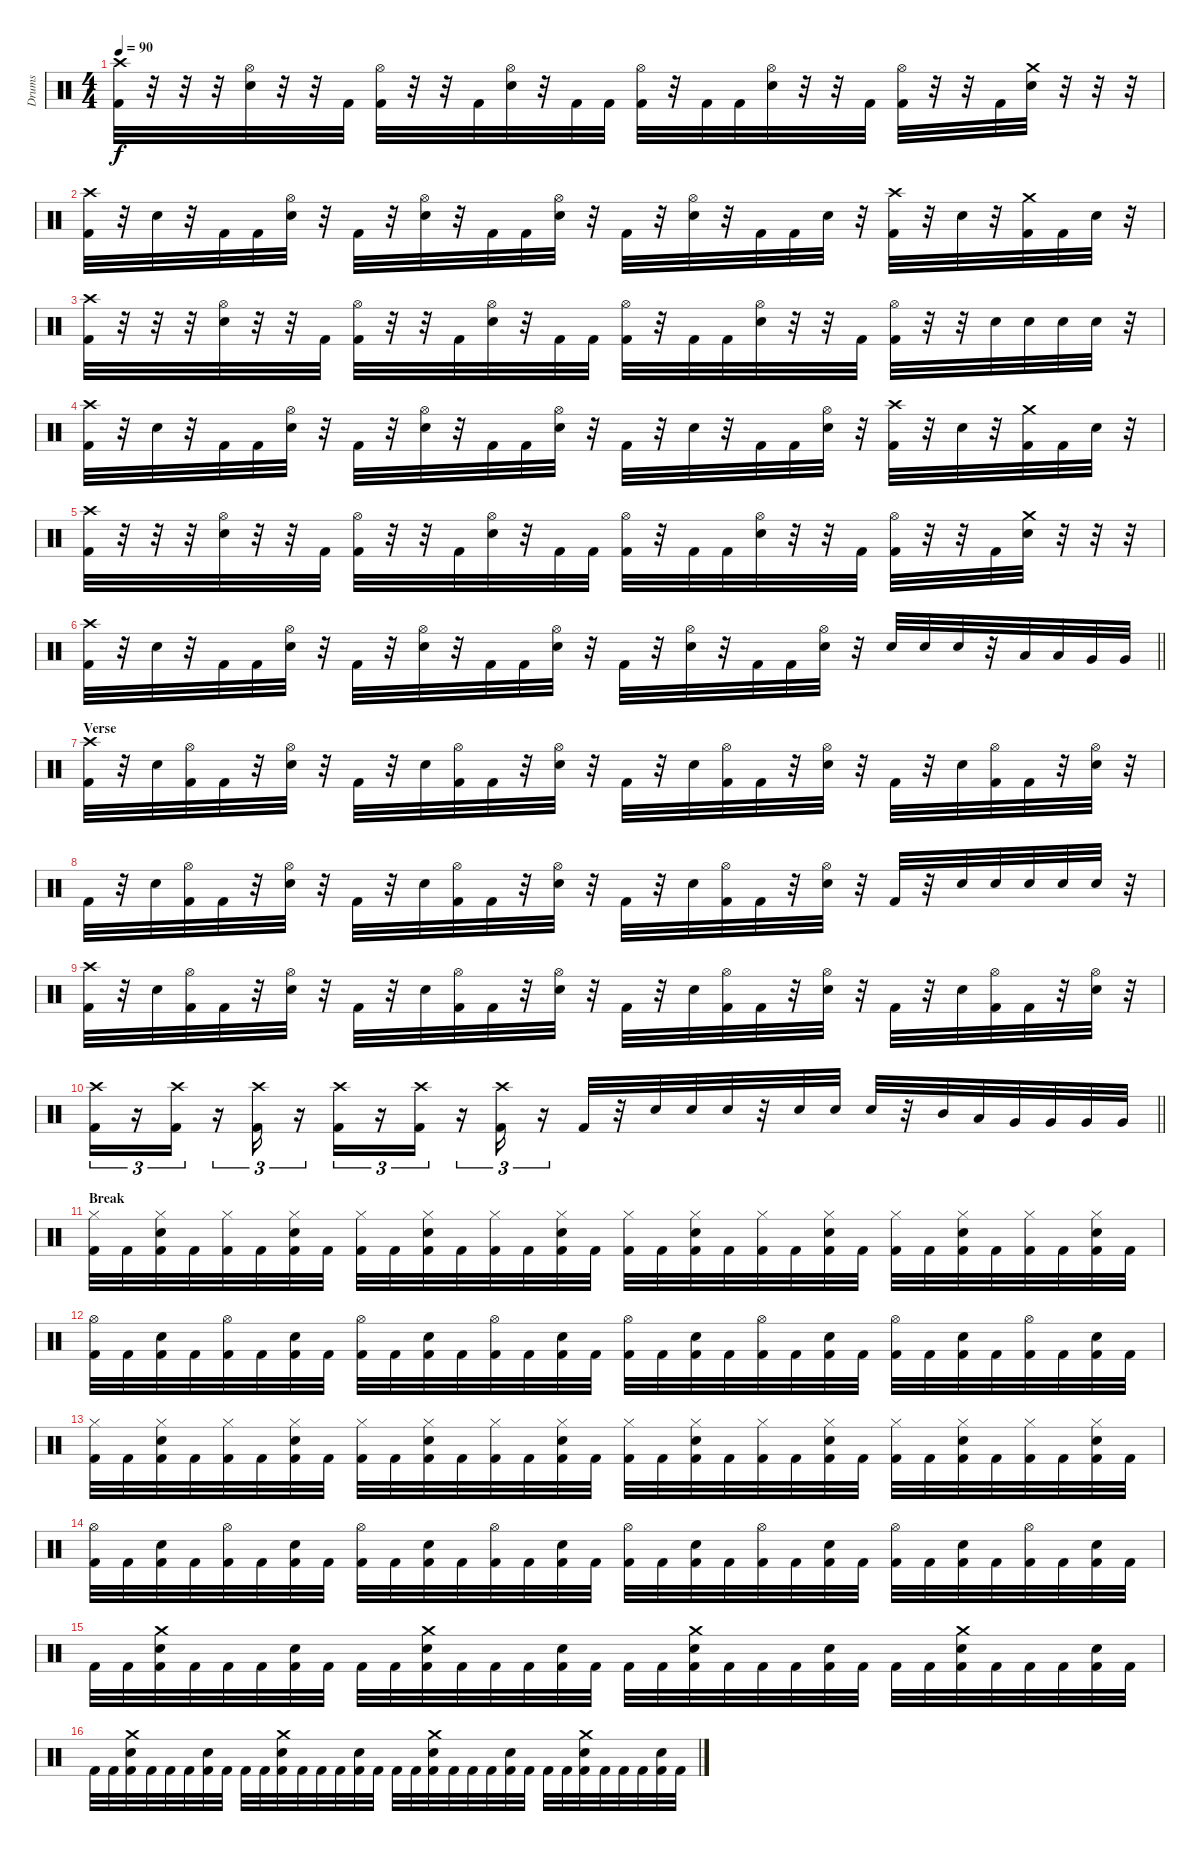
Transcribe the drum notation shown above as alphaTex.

\track ("Drums" "Drums") {instrument percussion}
\staff {score}
\articulation defaults
\ts (4 4)
\tempo 90
\clef neutral
\ks c
("Crash high (hit)" "Kick (hit) 2").32{dy f} r.32 r.32 r.32 ("Hi-Hat (open)" "Electric Snare (hit)").32 r.32 r.32 "Kick (hit) 2".32 ("Hi-Hat (open)" "Kick (hit) 2").32 r.32 r.32 "Kick (hit) 2".32 ("Hi-Hat (open)" "Electric Snare (hit)").32 r.32 "Kick (hit) 2".32 "Kick (hit) 2".32 ("Hi-Hat (open)" "Kick (hit) 2").32 r.32 "Kick (hit) 2".32 "Kick (hit) 2".32 ("Hi-Hat (open)" "Electric Snare (hit)").32 r.32 r.32 "Kick (hit) 2".32 ("Hi-Hat (open)" "Kick (hit) 2").32 r.32 r.32 "Kick (hit) 2".32 ("Crash medium (hit)" "Electric Snare (hit)").32 r.32 r.32 r.32 |
("Crash high (hit)" "Kick (hit) 2").32 r.32 "Electric Snare (hit)".32 r.32 "Kick (hit) 2".32 "Kick (hit) 2".32 ("Hi-Hat (open)" "Electric Snare (hit)").32 r.32 "Kick (hit) 2".32 r.32 ("Hi-Hat (open)" "Electric Snare (hit)").32 r.32 "Kick (hit) 2".32 "Kick (hit) 2".32 ("Hi-Hat (open)" "Electric Snare (hit)").32 r.32 "Kick (hit) 2".32 r.32 ("Hi-Hat (open)" "Electric Snare (hit)").32 r.32 "Kick (hit) 2".32 "Kick (hit) 2".32 "Electric Snare (hit)".32 r.32 ("Crash high (hit)" "Kick (hit) 2").32 r.32 "Electric Snare (hit)".32 r.32 ("Crash medium (hit)" "Kick (hit) 2").32 "Kick (hit) 2".32 "Electric Snare (hit)".32 r.32 |
("Crash high (hit)" "Kick (hit) 2").32 r.32 r.32 r.32 ("Hi-Hat (open)" "Electric Snare (hit)").32 r.32 r.32 "Kick (hit) 2".32 ("Hi-Hat (open)" "Kick (hit) 2").32 r.32 r.32 "Kick (hit) 2".32 ("Hi-Hat (open)" "Electric Snare (hit)").32 r.32 "Kick (hit) 2".32 "Kick (hit) 2".32 ("Hi-Hat (open)" "Kick (hit) 2").32 r.32 "Kick (hit) 2".32 "Kick (hit) 2".32 ("Hi-Hat (open)" "Electric Snare (hit)").32 r.32 r.32 "Kick (hit) 2".32 ("Hi-Hat (open)" "Kick (hit) 2").32 r.32 r.32 "Electric Snare (hit)".32 "Electric Snare (hit)".32 "Electric Snare (hit)".32 "Electric Snare (hit)".32 r.32 |
("Crash high (hit)" "Kick (hit) 2").32 r.32 "Electric Snare (hit)".32 r.32 "Kick (hit) 2".32 "Kick (hit) 2".32 ("Hi-Hat (open)" "Electric Snare (hit)").32 r.32 "Kick (hit) 2".32 r.32 ("Hi-Hat (open)" "Electric Snare (hit)").32 r.32 "Kick (hit) 2".32 "Kick (hit) 2".32 ("Hi-Hat (open)" "Electric Snare (hit)").32 r.32 "Kick (hit) 2".32 r.32 "Electric Snare (hit)".32 r.32 "Kick (hit) 2".32 "Kick (hit) 2".32 ("Hi-Hat (open)" "Electric Snare (hit)").32 r.32 ("Crash high (hit)" "Kick (hit) 2").32 r.32 "Electric Snare (hit)".32 r.32 ("Crash medium (hit)" "Kick (hit) 2").32 "Kick (hit) 2".32 "Electric Snare (hit)".32 r.32 |
("Crash high (hit)" "Kick (hit) 2").32 r.32 r.32 r.32 ("Hi-Hat (open)" "Electric Snare (hit)").32 r.32 r.32 "Kick (hit) 2".32 ("Hi-Hat (open)" "Kick (hit) 2").32 r.32 r.32 "Kick (hit) 2".32 ("Hi-Hat (open)" "Electric Snare (hit)").32 r.32 "Kick (hit) 2".32 "Kick (hit) 2".32 ("Hi-Hat (open)" "Kick (hit) 2").32 r.32 "Kick (hit) 2".32 "Kick (hit) 2".32 ("Hi-Hat (open)" "Electric Snare (hit)").32 r.32 r.32 "Kick (hit) 2".32 ("Hi-Hat (open)" "Kick (hit) 2").32 r.32 r.32 "Kick (hit) 2".32 ("Crash medium (hit)" "Electric Snare (hit)").32 r.32 r.32 r.32 |
\barLineRight lightlight
("Crash high (hit)" "Kick (hit) 2").32 r.32 "Electric Snare (hit)".32 r.32 "Kick (hit) 2".32 "Kick (hit) 2".32 ("Hi-Hat (open)" "Electric Snare (hit)").32 r.32 "Kick (hit) 2".32 r.32 ("Hi-Hat (open)" "Electric Snare (hit)").32 r.32 "Kick (hit) 2".32 "Kick (hit) 2".32 ("Hi-Hat (open)" "Electric Snare (hit)").32 r.32 "Kick (hit) 2".32 r.32 ("Hi-Hat (open)" "Electric Snare (hit)").32 r.32 "Kick (hit) 2".32 "Kick (hit) 2".32 ("Hi-Hat (open)" "Electric Snare (hit)").32 r.32 "Electric Snare (hit)".32 "Electric Snare (hit)".32 "Electric Snare (hit)".32 r.32 "Low Tom (hit)".32 "Low Tom (hit)".32 "Very Low Tom (hit)".32 "Very Low Tom (hit)".32 |
\section ("" "Verse")
("Crash high (hit)" "Kick (hit) 2").32 r.32 "Electric Snare (hit)".32 ("Hi-Hat (open)" "Kick (hit) 2").32 "Kick (hit) 2".32 r.32 ("Hi-Hat (open)" "Electric Snare (hit)").32 r.32 "Kick (hit) 2".32 r.32 "Electric Snare (hit)".32 ("Hi-Hat (open)" "Kick (hit) 2").32 "Kick (hit) 2".32 r.32 ("Hi-Hat (open)" "Electric Snare (hit)").32 r.32 "Kick (hit) 2".32 r.32 "Electric Snare (hit)".32 ("Hi-Hat (open)" "Kick (hit) 2").32 "Kick (hit) 2".32 r.32 ("Hi-Hat (open)" "Electric Snare (hit)").32 r.32 "Kick (hit) 2".32 r.32 "Electric Snare (hit)".32 ("Hi-Hat (open)" "Kick (hit) 2").32 "Kick (hit) 2".32 r.32 ("Hi-Hat (open)" "Electric Snare (hit)").32 r.32 |
"Kick (hit) 2".32 r.32 "Electric Snare (hit)".32 ("Hi-Hat (open)" "Kick (hit) 2").32 "Kick (hit) 2".32 r.32 ("Hi-Hat (open)" "Electric Snare (hit)").32 r.32 "Kick (hit) 2".32 r.32 "Electric Snare (hit)".32 ("Hi-Hat (open)" "Kick (hit) 2").32 "Kick (hit) 2".32 r.32 ("Hi-Hat (open)" "Electric Snare (hit)").32 r.32 "Kick (hit) 2".32 r.32 "Electric Snare (hit)".32 ("Hi-Hat (open)" "Kick (hit) 2").32 "Kick (hit) 2".32 r.32 ("Hi-Hat (open)" "Electric Snare (hit)").32 r.32 "Kick (hit) 2".32 r.32 "Electric Snare (hit)".32 "Electric Snare (hit)".32 "Electric Snare (hit)".32 "Electric Snare (hit)".32 "Electric Snare (hit)".32 r.32 |
("Crash high (hit)" "Kick (hit) 2").32 r.32 "Electric Snare (hit)".32 ("Hi-Hat (open)" "Kick (hit) 2").32 "Kick (hit) 2".32 r.32 ("Hi-Hat (open)" "Electric Snare (hit)").32 r.32 "Kick (hit) 2".32 r.32 "Electric Snare (hit)".32 ("Hi-Hat (open)" "Kick (hit) 2").32 "Kick (hit) 2".32 r.32 ("Hi-Hat (open)" "Electric Snare (hit)").32 r.32 "Kick (hit) 2".32 r.32 "Electric Snare (hit)".32 ("Hi-Hat (open)" "Kick (hit) 2").32 "Kick (hit) 2".32 r.32 ("Hi-Hat (open)" "Electric Snare (hit)").32 r.32 "Kick (hit) 2".32 r.32 "Electric Snare (hit)".32 ("Hi-Hat (open)" "Kick (hit) 2").32 "Kick (hit) 2".32 r.32 ("Hi-Hat (open)" "Electric Snare (hit)").32 r.32 |
\barLineRight lightlight
("Crash high (hit)" "Kick (hit) 2").16{tu (3 2)} r.16{tu (3 2)} ("Crash high (hit)" "Kick (hit) 2").16{tu (3 2)} r.16{tu (3 2)} ("Crash high (hit)" "Kick (hit) 2").16{tu (3 2)} r.16{tu (3 2)} ("Crash high (hit)" "Kick (hit) 2").16{tu (3 2)} r.16{tu (3 2)} ("Crash high (hit)" "Kick (hit) 2").16{tu (3 2)} r.16{tu (3 2)} ("Crash high (hit)" "Kick (hit) 2").16{tu (3 2)} r.16{tu (3 2)} "Kick (hit) 2".32 r.32 "Electric Snare (hit)".32 "Electric Snare (hit)".32 "Electric Snare (hit)".32 r.32 "Electric Snare (hit)".32 "Electric Snare (hit)".32 "Electric Snare (hit)".32 r.32 "Mid Tom (hit)".32 "Low Tom (hit)".32 "Very Low Tom (hit)".32 "Very Low Tom (hit)".32 "Very Low Tom (hit)".32 "Very Low Tom (hit)".32 |
\section ("" "Break")
("Hi-Hat (closed)" "Kick (hit) 2").32 "Kick (hit) 2".32 ("Hi-Hat (closed)" "Electric Snare (hit)" "Kick (hit) 2").32 "Kick (hit) 2".32 ("Hi-Hat (closed)" "Kick (hit) 2").32 "Kick (hit) 2".32 ("Hi-Hat (closed)" "Electric Snare (hit)" "Kick (hit) 2").32 "Kick (hit) 2".32 ("Hi-Hat (closed)" "Kick (hit) 2").32 "Kick (hit) 2".32 ("Hi-Hat (closed)" "Electric Snare (hit)" "Kick (hit) 2").32 "Kick (hit) 2".32 ("Hi-Hat (closed)" "Kick (hit) 2").32 "Kick (hit) 2".32 ("Hi-Hat (closed)" "Electric Snare (hit)" "Kick (hit) 2").32 "Kick (hit) 2".32 ("Hi-Hat (closed)" "Kick (hit) 2").32 "Kick (hit) 2".32 ("Hi-Hat (closed)" "Electric Snare (hit)" "Kick (hit) 2").32 "Kick (hit) 2".32 ("Hi-Hat (closed)" "Kick (hit) 2").32 "Kick (hit) 2".32 ("Hi-Hat (closed)" "Electric Snare (hit)" "Kick (hit) 2").32 "Kick (hit) 2".32 ("Hi-Hat (closed)" "Kick (hit) 2").32 "Kick (hit) 2".32 ("Hi-Hat (closed)" "Electric Snare (hit)" "Kick (hit) 2").32 "Kick (hit) 2".32 ("Hi-Hat (closed)" "Kick (hit) 2").32 "Kick (hit) 2".32 ("Hi-Hat (closed)" "Electric Snare (hit)" "Kick (hit) 2").32 "Kick (hit) 2".32 |
("Hi-Hat (open)" "Kick (hit) 2").32 "Kick (hit) 2".32 ("Electric Snare (hit)" "Kick (hit) 2").32 "Kick (hit) 2".32 ("Hi-Hat (open)" "Kick (hit) 2").32 "Kick (hit) 2".32 ("Electric Snare (hit)" "Kick (hit) 2").32 "Kick (hit) 2".32 ("Hi-Hat (open)" "Kick (hit) 2").32 "Kick (hit) 2".32 ("Electric Snare (hit)" "Kick (hit) 2").32 "Kick (hit) 2".32 ("Hi-Hat (open)" "Kick (hit) 2").32 "Kick (hit) 2".32 ("Electric Snare (hit)" "Kick (hit) 2").32 "Kick (hit) 2".32 ("Hi-Hat (open)" "Kick (hit) 2").32 "Kick (hit) 2".32 ("Electric Snare (hit)" "Kick (hit) 2").32 "Kick (hit) 2".32 ("Hi-Hat (open)" "Kick (hit) 2").32 "Kick (hit) 2".32 ("Electric Snare (hit)" "Kick (hit) 2").32 "Kick (hit) 2".32 ("Hi-Hat (open)" "Kick (hit) 2").32 "Kick (hit) 2".32 ("Electric Snare (hit)" "Kick (hit) 2").32 "Kick (hit) 2".32 ("Hi-Hat (open)" "Kick (hit) 2").32 "Kick (hit) 2".32 ("Electric Snare (hit)" "Kick (hit) 2").32 "Kick (hit) 2".32 |
("Hi-Hat (closed)" "Kick (hit) 2").32 "Kick (hit) 2".32 ("Hi-Hat (closed)" "Electric Snare (hit)" "Kick (hit) 2").32 "Kick (hit) 2".32 ("Hi-Hat (closed)" "Kick (hit) 2").32 "Kick (hit) 2".32 ("Hi-Hat (closed)" "Electric Snare (hit)" "Kick (hit) 2").32 "Kick (hit) 2".32 ("Hi-Hat (closed)" "Kick (hit) 2").32 "Kick (hit) 2".32 ("Hi-Hat (closed)" "Electric Snare (hit)" "Kick (hit) 2").32 "Kick (hit) 2".32 ("Hi-Hat (closed)" "Kick (hit) 2").32 "Kick (hit) 2".32 ("Hi-Hat (closed)" "Electric Snare (hit)" "Kick (hit) 2").32 "Kick (hit) 2".32 ("Hi-Hat (closed)" "Kick (hit) 2").32 "Kick (hit) 2".32 ("Hi-Hat (closed)" "Electric Snare (hit)" "Kick (hit) 2").32 "Kick (hit) 2".32 ("Hi-Hat (closed)" "Kick (hit) 2").32 "Kick (hit) 2".32 ("Hi-Hat (closed)" "Electric Snare (hit)" "Kick (hit) 2").32 "Kick (hit) 2".32 ("Hi-Hat (closed)" "Kick (hit) 2").32 "Kick (hit) 2".32 ("Hi-Hat (closed)" "Electric Snare (hit)" "Kick (hit) 2").32 "Kick (hit) 2".32 ("Hi-Hat (closed)" "Kick (hit) 2").32 "Kick (hit) 2".32 ("Hi-Hat (closed)" "Electric Snare (hit)" "Kick (hit) 2").32 "Kick (hit) 2".32 |
("Hi-Hat (open)" "Kick (hit) 2").32 "Kick (hit) 2".32 ("Electric Snare (hit)" "Kick (hit) 2").32 "Kick (hit) 2".32 ("Hi-Hat (open)" "Kick (hit) 2").32 "Kick (hit) 2".32 ("Electric Snare (hit)" "Kick (hit) 2").32 "Kick (hit) 2".32 ("Hi-Hat (open)" "Kick (hit) 2").32 "Kick (hit) 2".32 ("Electric Snare (hit)" "Kick (hit) 2").32 "Kick (hit) 2".32 ("Hi-Hat (open)" "Kick (hit) 2").32 "Kick (hit) 2".32 ("Electric Snare (hit)" "Kick (hit) 2").32 "Kick (hit) 2".32 ("Hi-Hat (open)" "Kick (hit) 2").32 "Kick (hit) 2".32 ("Electric Snare (hit)" "Kick (hit) 2").32 "Kick (hit) 2".32 ("Hi-Hat (open)" "Kick (hit) 2").32 "Kick (hit) 2".32 ("Electric Snare (hit)" "Kick (hit) 2").32 "Kick (hit) 2".32 ("Hi-Hat (open)" "Kick (hit) 2").32 "Kick (hit) 2".32 ("Electric Snare (hit)" "Kick (hit) 2").32 "Kick (hit) 2".32 ("Hi-Hat (open)" "Kick (hit) 2").32 "Kick (hit) 2".32 ("Electric Snare (hit)" "Kick (hit) 2").32 "Kick (hit) 2".32 |
"Kick (hit) 2".32 "Kick (hit) 2".32 ("Crash medium (hit)" "Electric Snare (hit)" "Kick (hit) 2").32 "Kick (hit) 2".32 "Kick (hit) 2".32 "Kick (hit) 2".32 ("Electric Snare (hit)" "Kick (hit) 2").32 "Kick (hit) 2".32 "Kick (hit) 2".32 "Kick (hit) 2".32 ("Crash medium (hit)" "Electric Snare (hit)" "Kick (hit) 2").32 "Kick (hit) 2".32 "Kick (hit) 2".32 "Kick (hit) 2".32 ("Electric Snare (hit)" "Kick (hit) 2").32 "Kick (hit) 2".32 "Kick (hit) 2".32 "Kick (hit) 2".32 ("Crash medium (hit)" "Electric Snare (hit)" "Kick (hit) 2").32 "Kick (hit) 2".32 "Kick (hit) 2".32 "Kick (hit) 2".32 ("Electric Snare (hit)" "Kick (hit) 2").32 "Kick (hit) 2".32 "Kick (hit) 2".32 "Kick (hit) 2".32 ("Crash medium (hit)" "Electric Snare (hit)" "Kick (hit) 2").32 "Kick (hit) 2".32 "Kick (hit) 2".32 "Kick (hit) 2".32 ("Electric Snare (hit)" "Kick (hit) 2").32 "Kick (hit) 2".32 |
"Kick (hit) 2".32 "Kick (hit) 2".32 ("Crash medium (hit)" "Electric Snare (hit)" "Kick (hit) 2").32 "Kick (hit) 2".32 "Kick (hit) 2".32 "Kick (hit) 2".32 ("Electric Snare (hit)" "Kick (hit) 2").32 "Kick (hit) 2".32 "Kick (hit) 2".32 "Kick (hit) 2".32 ("Crash medium (hit)" "Electric Snare (hit)" "Kick (hit) 2").32 "Kick (hit) 2".32 "Kick (hit) 2".32 "Kick (hit) 2".32 ("Electric Snare (hit)" "Kick (hit) 2").32 "Kick (hit) 2".32 "Kick (hit) 2".32 "Kick (hit) 2".32 ("Crash medium (hit)" "Electric Snare (hit)" "Kick (hit) 2").32 "Kick (hit) 2".32 "Kick (hit) 2".32 "Kick (hit) 2".32 ("Electric Snare (hit)" "Kick (hit) 2").32 "Kick (hit) 2".32 "Kick (hit) 2".32 "Kick (hit) 2".32 ("Crash medium (hit)" "Electric Snare (hit)" "Kick (hit) 2").32 "Kick (hit) 2".32 "Kick (hit) 2".32 "Kick (hit) 2".32 ("Electric Snare (hit)" "Kick (hit) 2").32 "Kick (hit) 2".32
